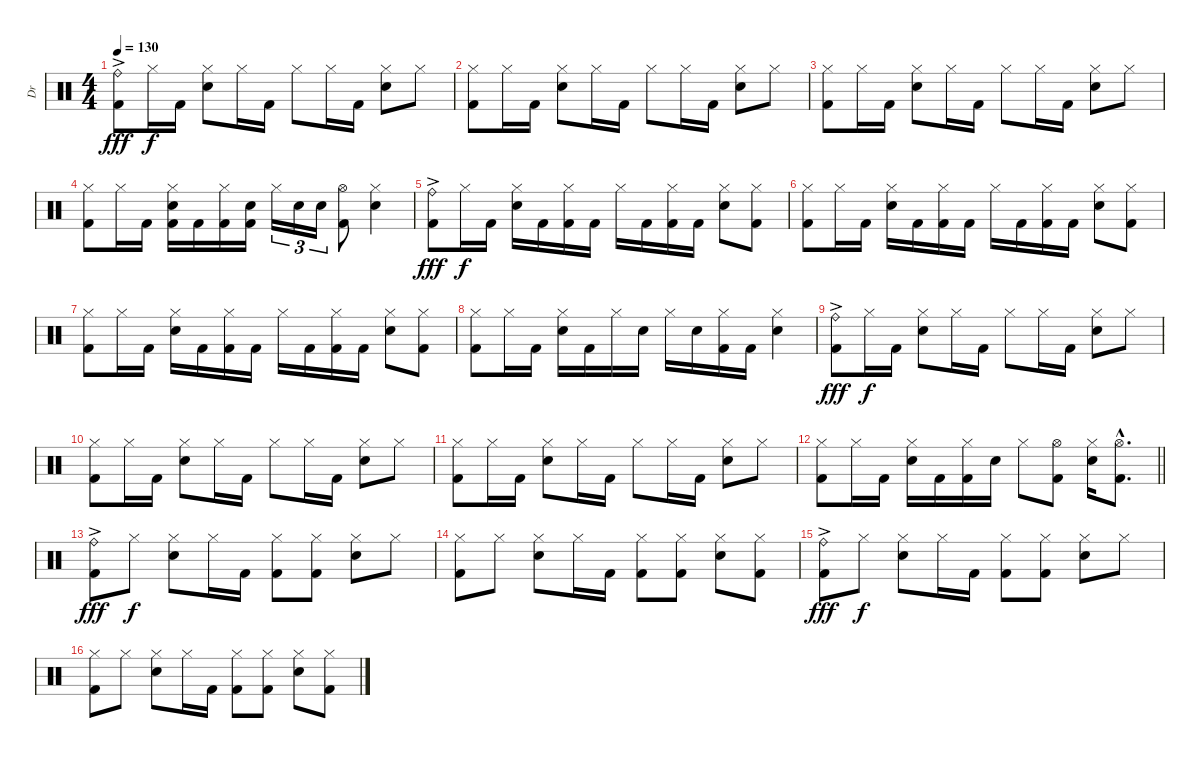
\track ("Dr" "Dr") {instrument percussion}
\staff {score}
\articulation defaults
\ts (4 4)
\tempo 130
\clef neutral
\ks c
("Ride (bell)"{ac} "Kick (hit) 2"{ac}).8{dy fff} "Hi-Hat (closed)".16{dy f} "Kick (hit) 2".16 ("Hi-Hat (closed)" "Electric Snare (hit)").8 "Hi-Hat (closed)".16 "Kick (hit) 2".16 "Hi-Hat (closed)".8 "Hi-Hat (closed)".16 "Kick (hit) 2".16 ("Hi-Hat (closed)" "Electric Snare (hit)").8 "Hi-Hat (closed)".8 |
("Hi-Hat (closed)" "Kick (hit) 2").8 "Hi-Hat (closed)".16 "Kick (hit) 2".16 ("Hi-Hat (closed)" "Electric Snare (hit)").8 "Hi-Hat (closed)".16 "Kick (hit) 2".16 "Hi-Hat (closed)".8 "Hi-Hat (closed)".16 "Kick (hit) 2".16 ("Hi-Hat (closed)" "Electric Snare (hit)").8 "Hi-Hat (closed)".8 |
("Hi-Hat (closed)" "Kick (hit) 2").8 "Hi-Hat (closed)".16 "Kick (hit) 2".16 ("Hi-Hat (closed)" "Electric Snare (hit)").8 "Hi-Hat (closed)".16 "Kick (hit) 2".16 "Hi-Hat (closed)".8 "Hi-Hat (closed)".16 "Kick (hit) 2".16 ("Hi-Hat (closed)" "Electric Snare (hit)").8 "Hi-Hat (closed)".8 |
("Hi-Hat (closed)" "Kick (hit) 2").8 "Hi-Hat (closed)".16 "Kick (hit) 2".16 ("Hi-Hat (closed)" "Electric Snare (hit)" "Kick (hit) 2").16 "Kick (hit) 2".16 ("Hi-Hat (closed)" "Kick (hit) 2").16 ("Electric Snare (hit)" "Kick (hit) 2").16 "Hi-Hat (closed)".16{tu (3 2)} "Electric Snare (hit)".16{tu (3 2)} "Electric Snare (hit)".16{tu (3 2)} ("Hi-Hat (open)" "Kick (hit) 2").8 ("Hi-Hat (closed)" "Electric Snare (hit)").4 |
("Ride (bell)"{ac} "Kick (hit) 2"{ac}).8{dy fff} "Hi-Hat (closed)".16{dy f} "Kick (hit) 2".16 ("Hi-Hat (closed)" "Electric Snare (hit)").16 "Kick (hit) 2".16 ("Hi-Hat (closed)" "Kick (hit) 2").16 "Kick (hit) 2".16 "Hi-Hat (closed)".16 "Kick (hit) 2".16 ("Hi-Hat (closed)" "Kick (hit) 2").16 "Kick (hit) 2".16 ("Hi-Hat (closed)" "Electric Snare (hit)").8 ("Hi-Hat (closed)" "Kick (hit) 2").8 |
("Hi-Hat (closed)" "Kick (hit) 2").8 "Hi-Hat (closed)".16 "Kick (hit) 2".16 ("Hi-Hat (closed)" "Electric Snare (hit)").16 "Kick (hit) 2".16 ("Hi-Hat (closed)" "Kick (hit) 2").16 "Kick (hit) 2".16 "Hi-Hat (closed)".16 "Kick (hit) 2".16 ("Hi-Hat (closed)" "Kick (hit) 2").16 "Kick (hit) 2".16 ("Hi-Hat (closed)" "Electric Snare (hit)").8 ("Hi-Hat (closed)" "Kick (hit) 2").8 |
("Hi-Hat (closed)" "Kick (hit) 2").8 "Hi-Hat (closed)".16 "Kick (hit) 2".16 ("Hi-Hat (closed)" "Electric Snare (hit)").16 "Kick (hit) 2".16 ("Hi-Hat (closed)" "Kick (hit) 2").16 "Kick (hit) 2".16 "Hi-Hat (closed)".16 "Kick (hit) 2".16 ("Hi-Hat (closed)" "Kick (hit) 2").16 "Kick (hit) 2".16 ("Hi-Hat (closed)" "Electric Snare (hit)").8 ("Hi-Hat (closed)" "Kick (hit) 2").8 |
("Hi-Hat (closed)" "Kick (hit) 2").8 "Hi-Hat (closed)".16 "Kick (hit) 2".16 ("Hi-Hat (closed)" "Electric Snare (hit)").16 "Kick (hit) 2".16 "Hi-Hat (closed)".16 "Electric Snare (hit)".16 "Hi-Hat (closed)".16 "Electric Snare (hit)".16 ("Hi-Hat (closed)" "Kick (hit) 2").16 "Kick (hit) 2".16 ("Hi-Hat (closed)" "Electric Snare (hit)").4 |
("Ride (bell)"{ac} "Kick (hit) 2"{ac}).8{dy fff} "Hi-Hat (closed)".16{dy f} "Kick (hit) 2".16 ("Hi-Hat (closed)" "Electric Snare (hit)").8 "Hi-Hat (closed)".16 "Kick (hit) 2".16 "Hi-Hat (closed)".8 "Hi-Hat (closed)".16 "Kick (hit) 2".16 ("Hi-Hat (closed)" "Electric Snare (hit)").8 "Hi-Hat (closed)".8 |
("Hi-Hat (closed)" "Kick (hit) 2").8 "Hi-Hat (closed)".16 "Kick (hit) 2".16 ("Hi-Hat (closed)" "Electric Snare (hit)").8 "Hi-Hat (closed)".16 "Kick (hit) 2".16 "Hi-Hat (closed)".8 "Hi-Hat (closed)".16 "Kick (hit) 2".16 ("Hi-Hat (closed)" "Electric Snare (hit)").8 "Hi-Hat (closed)".8 |
("Hi-Hat (closed)" "Kick (hit) 2").8 "Hi-Hat (closed)".16 "Kick (hit) 2".16 ("Hi-Hat (closed)" "Electric Snare (hit)").8 "Hi-Hat (closed)".16 "Kick (hit) 2".16 "Hi-Hat (closed)".8 "Hi-Hat (closed)".16 "Kick (hit) 2".16 ("Hi-Hat (closed)" "Electric Snare (hit)").8 "Hi-Hat (closed)".8 |
\barLineRight lightlight
("Hi-Hat (closed)" "Kick (hit) 2").8 "Hi-Hat (closed)".16 "Kick (hit) 2".16 ("Hi-Hat (closed)" "Electric Snare (hit)").16 "Kick (hit) 2".16 ("Hi-Hat (closed)" "Kick (hit) 2").16 "Electric Snare (hit)".16 "Hi-Hat (closed)".8 ("Hi-Hat (open)" "Kick (hit) 2").8 ("Hi-Hat (closed)" "Electric Snare (hit)").16 ("Hi-Hat (open)"{hac} "Kick (hit) 2"{hac}).8{d} |
("Ride (bell)"{ac} "Kick (hit) 2"{ac}).8{dy fff} "Hi-Hat (closed)".8{dy f} ("Hi-Hat (closed)" "Electric Snare (hit)").8 "Hi-Hat (closed)".16 "Kick (hit) 2".16 ("Hi-Hat (closed)" "Kick (hit) 2").8 ("Hi-Hat (closed)" "Kick (hit) 2").8 ("Hi-Hat (closed)" "Electric Snare (hit)").8 "Hi-Hat (closed)".8 |
("Hi-Hat (closed)" "Kick (hit) 2").8 "Hi-Hat (closed)".8 ("Hi-Hat (closed)" "Electric Snare (hit)").8 "Hi-Hat (closed)".16 "Kick (hit) 2".16 ("Hi-Hat (closed)" "Kick (hit) 2").8 ("Hi-Hat (closed)" "Kick (hit) 2").8 ("Hi-Hat (closed)" "Electric Snare (hit)").8 ("Hi-Hat (closed)" "Kick (hit) 2").8 |
("Ride (bell)"{ac} "Kick (hit) 2"{ac}).8{dy fff} "Hi-Hat (closed)".8{dy f} ("Hi-Hat (closed)" "Electric Snare (hit)").8 "Hi-Hat (closed)".16 "Kick (hit) 2".16 ("Hi-Hat (closed)" "Kick (hit) 2").8 ("Hi-Hat (closed)" "Kick (hit) 2").8 ("Hi-Hat (closed)" "Electric Snare (hit)").8 "Hi-Hat (closed)".8 |
("Hi-Hat (closed)" "Kick (hit) 2").8 "Hi-Hat (closed)".8 ("Hi-Hat (closed)" "Electric Snare (hit)").8 "Hi-Hat (closed)".16 "Kick (hit) 2".16 ("Hi-Hat (closed)" "Kick (hit) 2").8 ("Hi-Hat (closed)" "Kick (hit) 2").8 ("Hi-Hat (closed)" "Electric Snare (hit)").8 ("Hi-Hat (closed)" "Kick (hit) 2").8
